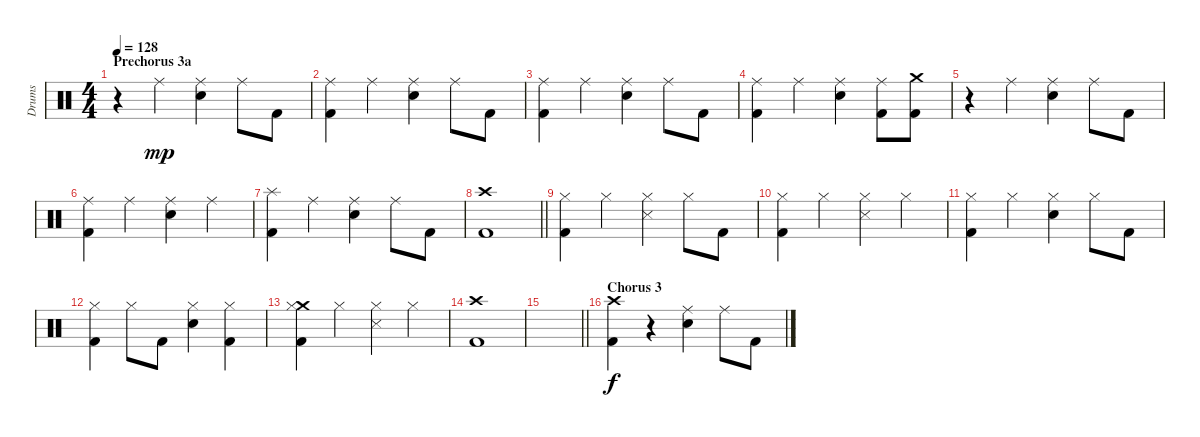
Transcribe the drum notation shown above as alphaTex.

\track ("Drums" "Drums") {instrument percussion}
\staff {score}
\articulation defaults
\ts (4 4)
\section ("" "Prechorus 3a")
\tempo 128
\clef neutral
\ks c
r.4{dy f} "Ride (middle)".4{dy mp} ("Ride (middle)" "Snare (hit) 2").4 "Ride (middle)".8 "Kick (hit) 2".8 |
("Ride (middle)" "Kick (hit) 2").4 "Ride (middle)".4 ("Ride (middle)" "Snare (hit) 2").4 "Ride (middle)".8 "Kick (hit) 2".8 |
("Ride (middle)" "Kick (hit) 2").4 "Ride (middle)".4 ("Ride (middle)" "Snare (hit) 2").4 "Ride (middle)".8 "Kick (hit) 2".8 |
("Ride (middle)" "Kick (hit) 2").4 "Ride (middle)".4 ("Ride (middle)" "Snare (hit) 2").4 ("Ride (middle)" "Kick (hit) 2").8 ("Crash medium (hit)" "Kick (hit) 2").8 |
r.4 "Ride (middle)".4 ("Ride (middle)" "Snare (hit) 2").4 "Ride (middle)".8 "Kick (hit) 2".8 |
("Ride (middle)" "Kick (hit) 2").4 "Ride (middle)".4 ("Ride (middle)" "Snare (hit) 2").4 "Ride (middle)".4 |
("Splash (hit)" "Kick (hit) 2").4 "Ride (middle)".4 ("Ride (middle)" "Snare (hit) 2").4 "Ride (middle)".8 "Kick (hit) 2".8 |
\barLineRight lightlight
("Crash high (hit)" "Kick (hit) 2").1 |
("Hi-Hat (closed)" "Kick (hit) 2").4 "Hi-Hat (closed)".4 ("Hi-Hat (closed)" "Snare (side stick) 3").4 "Hi-Hat (closed)".8 "Kick (hit) 2".8 |
("Hi-Hat (closed)" "Kick (hit) 2").4 "Hi-Hat (closed)".4 ("Hi-Hat (closed)" "Snare (side stick) 3").4 "Hi-Hat (closed)".4 |
("Hi-Hat (closed)" "Kick (hit) 2").4 "Hi-Hat (closed)".4 ("Hi-Hat (closed)" "Snare (hit) 2").4 "Hi-Hat (closed)".8 "Kick (hit) 2".8 |
("Hi-Hat (closed)" "Kick (hit) 2").4 "Hi-Hat (closed)".8 "Kick (hit) 2".8 ("Hi-Hat (closed)" "Snare (hit) 2").4 ("Hi-Hat (closed)" "Kick (hit) 2").4 |
("Crash medium (hit)" "Hi-Hat (closed)" "Kick (hit) 2").4 "Hi-Hat (closed)".4 ("Hi-Hat (closed)" "Snare (side stick) 3").4 "Hi-Hat (closed)".4 |
("Crash high (hit)" "Kick (hit) 2").1 |
\barLineRight lightlight
|
\section ("" "Chorus 3")
("Crash high (hit)" "Kick (hit) 2").4{dy f} r.4 ("Ride (middle)" "Snare (hit) 2").4 "Ride (middle)".8 "Kick (hit) 2".8
